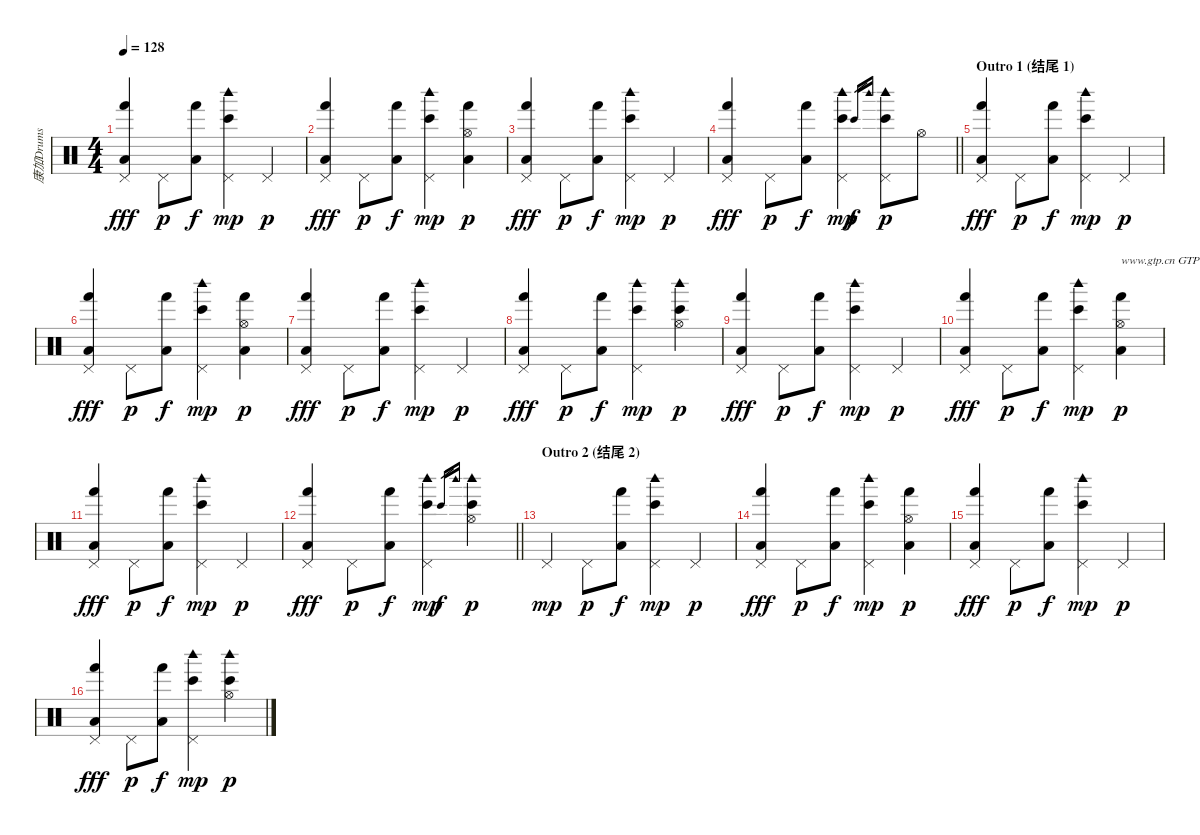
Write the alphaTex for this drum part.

\track ("康加Drums" "康加Drums") {instrument percussion}
\staff {score}
\articulation defaults
\ts (4 4)
\tempo 128
\clef neutral
\ks c
("Pedal Hi-Hat (hit)" "Hand (hit)" "Low Floor Tom (hit)").4{dy fff} "Pedal Hi-Hat (hit)".8{dy p} ("Hand (hit)" "Low Floor Tom (hit)").8{dy f} ("Bongo High (hit)" "Woodblock high (hit)" "Pedal Hi-Hat (hit)").4{dy mp} "Pedal Hi-Hat (hit)".4{dy p} |
("Pedal Hi-Hat (hit)" "Hand (hit)" "Low Floor Tom (hit)").4{dy fff} "Pedal Hi-Hat (hit)".8{dy p} ("Hand (hit)" "Low Floor Tom (hit)").8{dy f} ("Bongo High (hit)" "Woodblock high (hit)" "Pedal Hi-Hat (hit)").4{dy mp} ("Hi-Hat (open)" "Hand (hit)" "Low Floor Tom (hit)").4{dy p} |
("Pedal Hi-Hat (hit)" "Hand (hit)" "Low Floor Tom (hit)").4{dy fff} "Pedal Hi-Hat (hit)".8{dy p} ("Hand (hit)" "Low Floor Tom (hit)").8{dy f} ("Bongo High (hit)" "Woodblock high (hit)" "Pedal Hi-Hat (hit)").4{dy mp} "Pedal Hi-Hat (hit)".4{dy p} |
\barLineRight lightlight
("Pedal Hi-Hat (hit)" "Hand (hit)" "Low Floor Tom (hit)").4{dy fff} "Pedal Hi-Hat (hit)".8{dy p} ("Hand (hit)" "Low Floor Tom (hit)").8{dy f} ("Bongo High (hit)" "Woodblock high (hit)" "Pedal Hi-Hat (hit)").4{dy mp} "Bongo High (hit)".16{gr dy f} "Woodblock high (hit)".16{gr} ("Bongo High (hit)" "Woodblock high (hit)" "Pedal Hi-Hat (hit)").8{dy p} "Hi-Hat (open)".8 |
\section ("" "Outro 1 (结尾 1)")
("Pedal Hi-Hat (hit)" "Hand (hit)" "Low Floor Tom (hit)").4{dy fff} "Pedal Hi-Hat (hit)".8{dy p} ("Hand (hit)" "Low Floor Tom (hit)").8{dy f} ("Bongo High (hit)" "Woodblock high (hit)" "Pedal Hi-Hat (hit)").4{dy mp} "Pedal Hi-Hat (hit)".4{dy p} |
("Pedal Hi-Hat (hit)" "Hand (hit)" "Low Floor Tom (hit)").4{dy fff} "Pedal Hi-Hat (hit)".8{dy p} ("Hand (hit)" "Low Floor Tom (hit)").8{dy f} ("Bongo High (hit)" "Woodblock high (hit)" "Pedal Hi-Hat (hit)").4{dy mp} ("Hi-Hat (open)" "Hand (hit)" "Low Floor Tom (hit)").4{dy p} |
("Pedal Hi-Hat (hit)" "Hand (hit)" "Low Floor Tom (hit)").4{dy fff} "Pedal Hi-Hat (hit)".8{dy p} ("Hand (hit)" "Low Floor Tom (hit)").8{dy f} ("Bongo High (hit)" "Woodblock high (hit)" "Pedal Hi-Hat (hit)").4{dy mp} "Pedal Hi-Hat (hit)".4{dy p} |
("Pedal Hi-Hat (hit)" "Hand (hit)" "Low Floor Tom (hit)").4{dy fff} "Pedal Hi-Hat (hit)".8{dy p} ("Hand (hit)" "Low Floor Tom (hit)").8{dy f} ("Bongo High (hit)" "Woodblock high (hit)" "Pedal Hi-Hat (hit)").4{dy mp} ("Bongo High (hit)" "Woodblock high (hit)" "Hi-Hat (open)").4{dy p} |
("Pedal Hi-Hat (hit)" "Hand (hit)" "Low Floor Tom (hit)").4{dy fff} "Pedal Hi-Hat (hit)".8{dy p} ("Hand (hit)" "Low Floor Tom (hit)").8{dy f} ("Bongo High (hit)" "Woodblock high (hit)" "Pedal Hi-Hat (hit)").4{dy mp} "Pedal Hi-Hat (hit)".4{dy p} |
("Pedal Hi-Hat (hit)" "Hand (hit)" "Low Floor Tom (hit)").4{dy fff} "Pedal Hi-Hat (hit)".8{dy p} ("Hand (hit)" "Low Floor Tom (hit)").8{dy f} ("Bongo High (hit)" "Woodblock high (hit)" "Pedal Hi-Hat (hit)").4{dy mp} ("Hi-Hat (open)" "Hand (hit)" "Low Floor Tom (hit)").4{txt "www.gtp.cn GTP中文娱乐网为您提供优秀的谱子" dy p} |
("Pedal Hi-Hat (hit)" "Hand (hit)" "Low Floor Tom (hit)").4{dy fff} "Pedal Hi-Hat (hit)".8{dy p} ("Hand (hit)" "Low Floor Tom (hit)").8{dy f} ("Bongo High (hit)" "Woodblock high (hit)" "Pedal Hi-Hat (hit)").4{dy mp} "Pedal Hi-Hat (hit)".4{dy p} |
\barLineRight lightlight
("Pedal Hi-Hat (hit)" "Hand (hit)" "Low Floor Tom (hit)").4{dy fff} "Pedal Hi-Hat (hit)".8{dy p} ("Hand (hit)" "Low Floor Tom (hit)").8{dy f} ("Bongo High (hit)" "Woodblock high (hit)" "Pedal Hi-Hat (hit)").4{dy mp} "Bongo High (hit)".16{gr dy f} "Woodblock high (hit)".16{gr} ("Bongo High (hit)" "Woodblock high (hit)" "Hi-Hat (open)").4{dy p} |
\section ("" "Outro 2 (结尾 2)")
"Pedal Hi-Hat (hit)".4{dy mp} "Pedal Hi-Hat (hit)".8{dy p} ("Hand (hit)" "Low Floor Tom (hit)").8{dy f} ("Bongo High (hit)" "Woodblock high (hit)" "Pedal Hi-Hat (hit)").4{dy mp} "Pedal Hi-Hat (hit)".4{dy p} |
("Pedal Hi-Hat (hit)" "Hand (hit)" "Low Floor Tom (hit)").4{dy fff} "Pedal Hi-Hat (hit)".8{dy p} ("Hand (hit)" "Low Floor Tom (hit)").8{dy f} ("Bongo High (hit)" "Woodblock high (hit)" "Pedal Hi-Hat (hit)").4{dy mp} ("Hi-Hat (open)" "Hand (hit)" "Low Floor Tom (hit)").4{dy p} |
("Pedal Hi-Hat (hit)" "Hand (hit)" "Low Floor Tom (hit)").4{dy fff} "Pedal Hi-Hat (hit)".8{dy p} ("Hand (hit)" "Low Floor Tom (hit)").8{dy f} ("Bongo High (hit)" "Woodblock high (hit)" "Pedal Hi-Hat (hit)").4{dy mp} "Pedal Hi-Hat (hit)".4{dy p} |
("Pedal Hi-Hat (hit)" "Hand (hit)" "Low Floor Tom (hit)").4{dy fff} "Pedal Hi-Hat (hit)".8{dy p} ("Hand (hit)" "Low Floor Tom (hit)").8{dy f} ("Bongo High (hit)" "Woodblock high (hit)" "Pedal Hi-Hat (hit)").4{dy mp} ("Bongo High (hit)" "Woodblock high (hit)" "Hi-Hat (open)").4{dy p}
